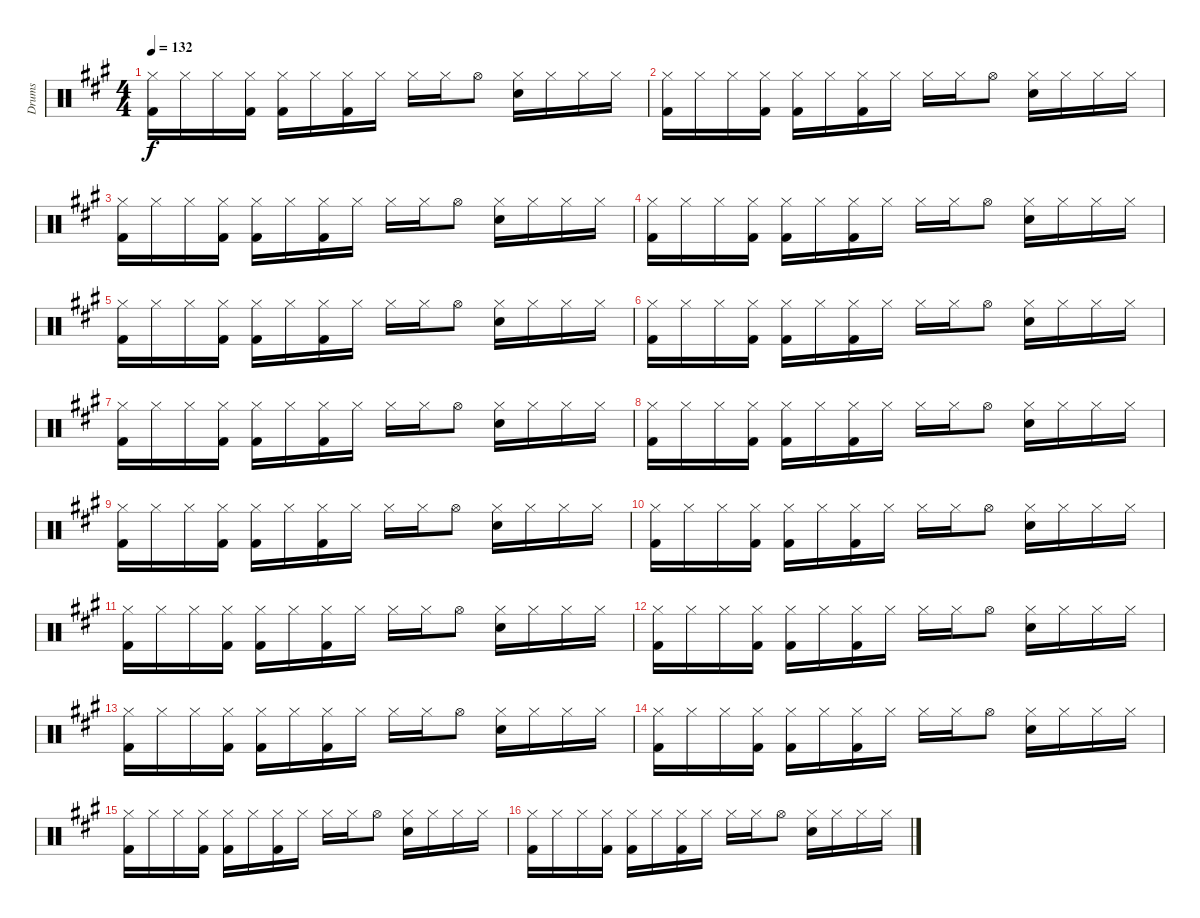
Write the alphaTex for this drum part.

\track ("Drums" "Drums") {instrument percussion}
\staff {score}
\articulation defaults
\ts (4 4)
\tempo 132
\clef neutral
\ks a
("Kick (hit) 2" "Hi-Hat (closed)").16{dy f} "Hi-Hat (closed)".16 "Hi-Hat (closed)".16 ("Kick (hit) 2" "Hi-Hat (closed)").16 ("Kick (hit) 2" "Hi-Hat (closed)").16 "Hi-Hat (closed)".16 ("Kick (hit) 2" "Hi-Hat (closed)").16 "Hi-Hat (closed)".16 "Hi-Hat (closed)".16 "Hi-Hat (closed)".16 "Hi-Hat (open)".8 ("Snare (hit) 2" "Hi-Hat (closed)").16 "Hi-Hat (closed)".16 "Hi-Hat (closed)".16 "Hi-Hat (closed)".16 |
("Kick (hit) 2" "Hi-Hat (closed)").16 "Hi-Hat (closed)".16 "Hi-Hat (closed)".16 ("Kick (hit) 2" "Hi-Hat (closed)").16 ("Kick (hit) 2" "Hi-Hat (closed)").16 "Hi-Hat (closed)".16 ("Kick (hit) 2" "Hi-Hat (closed)").16 "Hi-Hat (closed)".16 "Hi-Hat (closed)".16 "Hi-Hat (closed)".16 "Hi-Hat (open)".8 ("Snare (hit) 2" "Hi-Hat (closed)").16 "Hi-Hat (closed)".16 "Hi-Hat (closed)".16 "Hi-Hat (closed)".16 |
("Kick (hit) 2" "Hi-Hat (closed)").16 "Hi-Hat (closed)".16 "Hi-Hat (closed)".16 ("Kick (hit) 2" "Hi-Hat (closed)").16 ("Kick (hit) 2" "Hi-Hat (closed)").16 "Hi-Hat (closed)".16 ("Kick (hit) 2" "Hi-Hat (closed)").16 "Hi-Hat (closed)".16 "Hi-Hat (closed)".16 "Hi-Hat (closed)".16 "Hi-Hat (open)".8 ("Snare (hit) 2" "Hi-Hat (closed)").16 "Hi-Hat (closed)".16 "Hi-Hat (closed)".16 "Hi-Hat (closed)".16 |
("Kick (hit) 2" "Hi-Hat (closed)").16 "Hi-Hat (closed)".16 "Hi-Hat (closed)".16 ("Kick (hit) 2" "Hi-Hat (closed)").16 ("Kick (hit) 2" "Hi-Hat (closed)").16 "Hi-Hat (closed)".16 ("Kick (hit) 2" "Hi-Hat (closed)").16 "Hi-Hat (closed)".16 "Hi-Hat (closed)".16 "Hi-Hat (closed)".16 "Hi-Hat (open)".8 ("Snare (hit) 2" "Hi-Hat (closed)").16 "Hi-Hat (closed)".16 "Hi-Hat (closed)".16 "Hi-Hat (closed)".16 |
("Kick (hit) 2" "Hi-Hat (closed)").16 "Hi-Hat (closed)".16 "Hi-Hat (closed)".16 ("Kick (hit) 2" "Hi-Hat (closed)").16 ("Kick (hit) 2" "Hi-Hat (closed)").16 "Hi-Hat (closed)".16 ("Kick (hit) 2" "Hi-Hat (closed)").16 "Hi-Hat (closed)".16 "Hi-Hat (closed)".16 "Hi-Hat (closed)".16 "Hi-Hat (open)".8 ("Snare (hit) 2" "Hi-Hat (closed)").16 "Hi-Hat (closed)".16 "Hi-Hat (closed)".16 "Hi-Hat (closed)".16 |
("Kick (hit) 2" "Hi-Hat (closed)").16 "Hi-Hat (closed)".16 "Hi-Hat (closed)".16 ("Kick (hit) 2" "Hi-Hat (closed)").16 ("Kick (hit) 2" "Hi-Hat (closed)").16 "Hi-Hat (closed)".16 ("Kick (hit) 2" "Hi-Hat (closed)").16 "Hi-Hat (closed)".16 "Hi-Hat (closed)".16 "Hi-Hat (closed)".16 "Hi-Hat (open)".8 ("Snare (hit) 2" "Hi-Hat (closed)").16 "Hi-Hat (closed)".16 "Hi-Hat (closed)".16 "Hi-Hat (closed)".16 |
("Kick (hit) 2" "Hi-Hat (closed)").16 "Hi-Hat (closed)".16 "Hi-Hat (closed)".16 ("Kick (hit) 2" "Hi-Hat (closed)").16 ("Kick (hit) 2" "Hi-Hat (closed)").16 "Hi-Hat (closed)".16 ("Kick (hit) 2" "Hi-Hat (closed)").16 "Hi-Hat (closed)".16 "Hi-Hat (closed)".16 "Hi-Hat (closed)".16 "Hi-Hat (open)".8 ("Snare (hit) 2" "Hi-Hat (closed)").16 "Hi-Hat (closed)".16 "Hi-Hat (closed)".16 "Hi-Hat (closed)".16 |
("Kick (hit) 2" "Hi-Hat (closed)").16 "Hi-Hat (closed)".16 "Hi-Hat (closed)".16 ("Kick (hit) 2" "Hi-Hat (closed)").16 ("Kick (hit) 2" "Hi-Hat (closed)").16 "Hi-Hat (closed)".16 ("Kick (hit) 2" "Hi-Hat (closed)").16 "Hi-Hat (closed)".16 "Hi-Hat (closed)".16 "Hi-Hat (closed)".16 "Hi-Hat (open)".8 ("Snare (hit) 2" "Hi-Hat (closed)").16 "Hi-Hat (closed)".16 "Hi-Hat (closed)".16 "Hi-Hat (closed)".16 |
("Kick (hit) 2" "Hi-Hat (closed)").16 "Hi-Hat (closed)".16 "Hi-Hat (closed)".16 ("Kick (hit) 2" "Hi-Hat (closed)").16 ("Kick (hit) 2" "Hi-Hat (closed)").16 "Hi-Hat (closed)".16 ("Kick (hit) 2" "Hi-Hat (closed)").16 "Hi-Hat (closed)".16 "Hi-Hat (closed)".16 "Hi-Hat (closed)".16 "Hi-Hat (open)".8 ("Snare (hit) 2" "Hi-Hat (closed)").16 "Hi-Hat (closed)".16 "Hi-Hat (closed)".16 "Hi-Hat (closed)".16 |
("Kick (hit) 2" "Hi-Hat (closed)").16 "Hi-Hat (closed)".16 "Hi-Hat (closed)".16 ("Kick (hit) 2" "Hi-Hat (closed)").16 ("Kick (hit) 2" "Hi-Hat (closed)").16 "Hi-Hat (closed)".16 ("Kick (hit) 2" "Hi-Hat (closed)").16 "Hi-Hat (closed)".16 "Hi-Hat (closed)".16 "Hi-Hat (closed)".16 "Hi-Hat (open)".8 ("Snare (hit) 2" "Hi-Hat (closed)").16 "Hi-Hat (closed)".16 "Hi-Hat (closed)".16 "Hi-Hat (closed)".16 |
("Kick (hit) 2" "Hi-Hat (closed)").16 "Hi-Hat (closed)".16 "Hi-Hat (closed)".16 ("Kick (hit) 2" "Hi-Hat (closed)").16 ("Kick (hit) 2" "Hi-Hat (closed)").16 "Hi-Hat (closed)".16 ("Kick (hit) 2" "Hi-Hat (closed)").16 "Hi-Hat (closed)".16 "Hi-Hat (closed)".16 "Hi-Hat (closed)".16 "Hi-Hat (open)".8 ("Snare (hit) 2" "Hi-Hat (closed)").16 "Hi-Hat (closed)".16 "Hi-Hat (closed)".16 "Hi-Hat (closed)".16 |
("Kick (hit) 2" "Hi-Hat (closed)").16 "Hi-Hat (closed)".16 "Hi-Hat (closed)".16 ("Kick (hit) 2" "Hi-Hat (closed)").16 ("Kick (hit) 2" "Hi-Hat (closed)").16 "Hi-Hat (closed)".16 ("Kick (hit) 2" "Hi-Hat (closed)").16 "Hi-Hat (closed)".16 "Hi-Hat (closed)".16 "Hi-Hat (closed)".16 "Hi-Hat (open)".8 ("Snare (hit) 2" "Hi-Hat (closed)").16 "Hi-Hat (closed)".16 "Hi-Hat (closed)".16 "Hi-Hat (closed)".16 |
("Kick (hit) 2" "Hi-Hat (closed)").16 "Hi-Hat (closed)".16 "Hi-Hat (closed)".16 ("Kick (hit) 2" "Hi-Hat (closed)").16 ("Kick (hit) 2" "Hi-Hat (closed)").16 "Hi-Hat (closed)".16 ("Kick (hit) 2" "Hi-Hat (closed)").16 "Hi-Hat (closed)".16 "Hi-Hat (closed)".16 "Hi-Hat (closed)".16 "Hi-Hat (open)".8 ("Snare (hit) 2" "Hi-Hat (closed)").16 "Hi-Hat (closed)".16 "Hi-Hat (closed)".16 "Hi-Hat (closed)".16 |
("Kick (hit) 2" "Hi-Hat (closed)").16 "Hi-Hat (closed)".16 "Hi-Hat (closed)".16 ("Kick (hit) 2" "Hi-Hat (closed)").16 ("Kick (hit) 2" "Hi-Hat (closed)").16 "Hi-Hat (closed)".16 ("Kick (hit) 2" "Hi-Hat (closed)").16 "Hi-Hat (closed)".16 "Hi-Hat (closed)".16 "Hi-Hat (closed)".16 "Hi-Hat (open)".8 ("Snare (hit) 2" "Hi-Hat (closed)").16 "Hi-Hat (closed)".16 "Hi-Hat (closed)".16 "Hi-Hat (closed)".16 |
("Kick (hit) 2" "Hi-Hat (closed)").16 "Hi-Hat (closed)".16 "Hi-Hat (closed)".16 ("Kick (hit) 2" "Hi-Hat (closed)").16 ("Kick (hit) 2" "Hi-Hat (closed)").16 "Hi-Hat (closed)".16 ("Kick (hit) 2" "Hi-Hat (closed)").16 "Hi-Hat (closed)".16 "Hi-Hat (closed)".16 "Hi-Hat (closed)".16 "Hi-Hat (open)".8 ("Snare (hit) 2" "Hi-Hat (closed)").16 "Hi-Hat (closed)".16 "Hi-Hat (closed)".16 "Hi-Hat (closed)".16 |
("Kick (hit) 2" "Hi-Hat (closed)").16 "Hi-Hat (closed)".16 "Hi-Hat (closed)".16 ("Kick (hit) 2" "Hi-Hat (closed)").16 ("Kick (hit) 2" "Hi-Hat (closed)").16 "Hi-Hat (closed)".16 ("Kick (hit) 2" "Hi-Hat (closed)").16 "Hi-Hat (closed)".16 "Hi-Hat (closed)".16 "Hi-Hat (closed)".16 "Hi-Hat (open)".8 ("Snare (hit) 2" "Hi-Hat (closed)").16 "Hi-Hat (closed)".16 "Hi-Hat (closed)".16 "Hi-Hat (closed)".16
